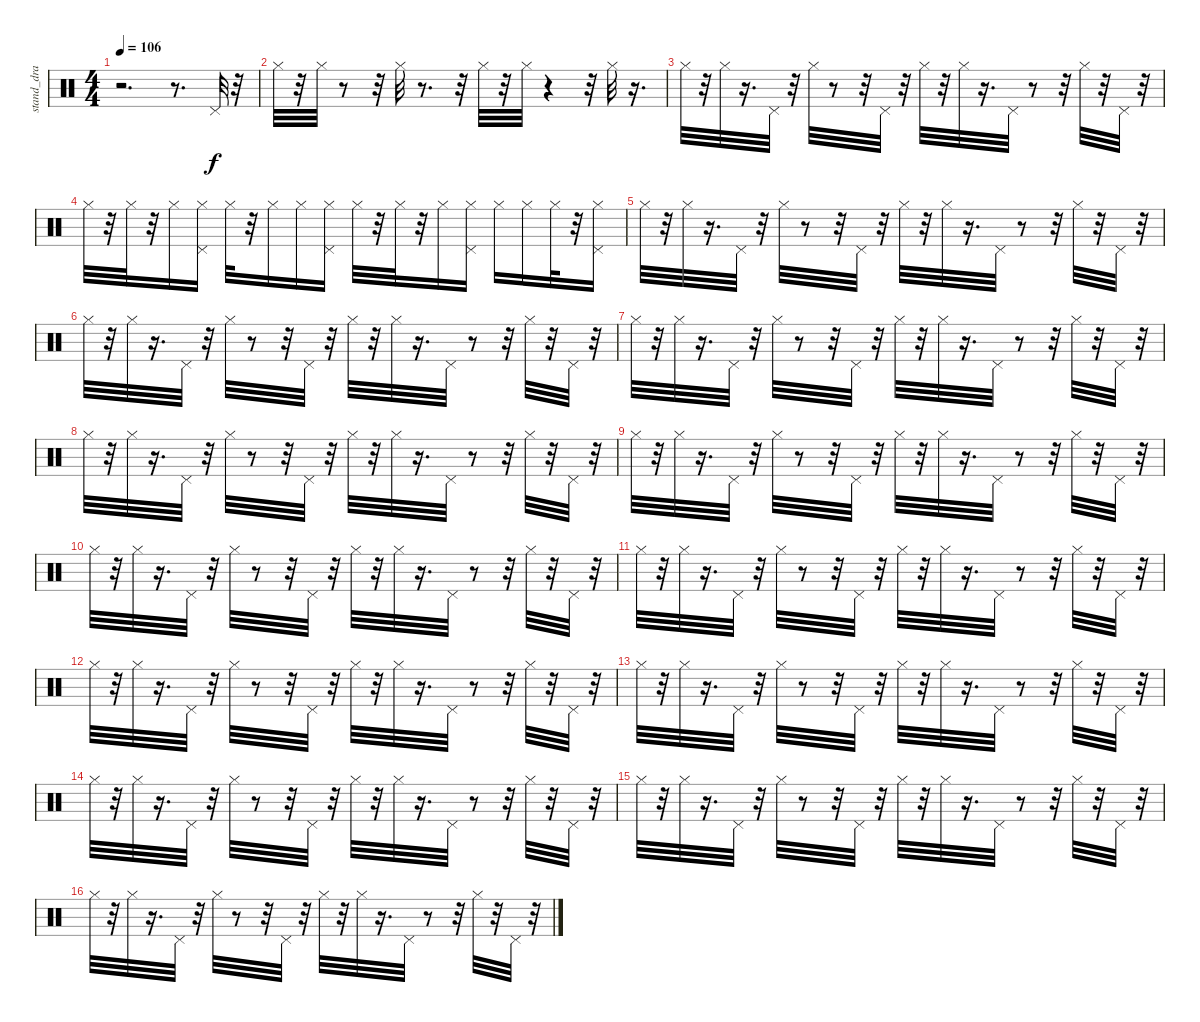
\track ("stand_dra" "stand_dra") {instrument percussion}
\staff {score}
\articulation defaults
\ts (4 4)
\tempo 106
\clef neutral
\ks c
r.2{d dy f} r.8{d} "Pedal Hi-Hat (hit)".32 r.32 |
"Hi-Hat (closed)".32 r.32 "Hi-Hat (closed)".32 r.8 r.32 "Hi-Hat (closed)".32 r.8{d} r.32 "Hi-Hat (closed)".32 r.32 "Hi-Hat (closed)".32 r.4 r.32 "Hi-Hat (closed)".32 r.16{d} |
"Hi-Hat (closed)".32 r.32 "Hi-Hat (closed)".32 r.16{d} "Pedal Hi-Hat (hit)".32 r.32 "Hi-Hat (closed)".32 r.8 r.32 "Pedal Hi-Hat (hit)".32 r.32 "Hi-Hat (closed)".32 r.32 "Hi-Hat (closed)".32 r.16{d} "Pedal Hi-Hat (hit)".32 r.8 r.32 "Hi-Hat (closed)".32 r.32 "Pedal Hi-Hat (hit)".32 r.32 |
"Hi-Hat (closed)".32 r.32 "Hi-Hat (closed)".32 r.32 "Hi-Hat (closed)".16 ("Hi-Hat (closed)" "Pedal Hi-Hat (hit)").16 "Hi-Hat (closed)".32 r.32 "Hi-Hat (closed)".16 "Hi-Hat (closed)".16 ("Hi-Hat (closed)" "Pedal Hi-Hat (hit)").16 "Hi-Hat (closed)".32 r.32 "Hi-Hat (closed)".32 r.32 "Hi-Hat (closed)".16 ("Hi-Hat (closed)" "Pedal Hi-Hat (hit)").16 "Hi-Hat (closed)".16 "Hi-Hat (closed)".16 "Hi-Hat (closed)".32 r.32 ("Hi-Hat (closed)" "Pedal Hi-Hat (hit)").16 |
"Hi-Hat (closed)".32 r.32 "Hi-Hat (closed)".32 r.16{d} "Pedal Hi-Hat (hit)".32 r.32 "Hi-Hat (closed)".32 r.8 r.32 "Pedal Hi-Hat (hit)".32 r.32 "Hi-Hat (closed)".32 r.32 "Hi-Hat (closed)".32 r.16{d} "Pedal Hi-Hat (hit)".32 r.8 r.32 "Hi-Hat (closed)".32 r.32 "Pedal Hi-Hat (hit)".32 r.32 |
"Hi-Hat (closed)".32 r.32 "Hi-Hat (closed)".32 r.16{d} "Pedal Hi-Hat (hit)".32 r.32 "Hi-Hat (closed)".32 r.8 r.32 "Pedal Hi-Hat (hit)".32 r.32 "Hi-Hat (closed)".32 r.32 "Hi-Hat (closed)".32 r.16{d} "Pedal Hi-Hat (hit)".32 r.8 r.32 "Hi-Hat (closed)".32 r.32 "Pedal Hi-Hat (hit)".32 r.32 |
"Hi-Hat (closed)".32 r.32 "Hi-Hat (closed)".32 r.16{d} "Pedal Hi-Hat (hit)".32 r.32 "Hi-Hat (closed)".32 r.8 r.32 "Pedal Hi-Hat (hit)".32 r.32 "Hi-Hat (closed)".32 r.32 "Hi-Hat (closed)".32 r.16{d} "Pedal Hi-Hat (hit)".32 r.8 r.32 "Hi-Hat (closed)".32 r.32 "Pedal Hi-Hat (hit)".32 r.32 |
"Hi-Hat (closed)".32 r.32 "Hi-Hat (closed)".32 r.16{d} "Pedal Hi-Hat (hit)".32 r.32 "Hi-Hat (closed)".32 r.8 r.32 "Pedal Hi-Hat (hit)".32 r.32 "Hi-Hat (closed)".32 r.32 "Hi-Hat (closed)".32 r.16{d} "Pedal Hi-Hat (hit)".32 r.8 r.32 "Hi-Hat (closed)".32 r.32 "Pedal Hi-Hat (hit)".32 r.32 |
"Hi-Hat (closed)".32 r.32 "Hi-Hat (closed)".32 r.16{d} "Pedal Hi-Hat (hit)".32 r.32 "Hi-Hat (closed)".32 r.8 r.32 "Pedal Hi-Hat (hit)".32 r.32 "Hi-Hat (closed)".32 r.32 "Hi-Hat (closed)".32 r.16{d} "Pedal Hi-Hat (hit)".32 r.8 r.32 "Hi-Hat (closed)".32 r.32 "Pedal Hi-Hat (hit)".32 r.32 |
"Hi-Hat (closed)".32 r.32 "Hi-Hat (closed)".32 r.16{d} "Pedal Hi-Hat (hit)".32 r.32 "Hi-Hat (closed)".32 r.8 r.32 "Pedal Hi-Hat (hit)".32 r.32 "Hi-Hat (closed)".32 r.32 "Hi-Hat (closed)".32 r.16{d} "Pedal Hi-Hat (hit)".32 r.8 r.32 "Hi-Hat (closed)".32 r.32 "Pedal Hi-Hat (hit)".32 r.32 |
"Hi-Hat (closed)".32 r.32 "Hi-Hat (closed)".32 r.16{d} "Pedal Hi-Hat (hit)".32 r.32 "Hi-Hat (closed)".32 r.8 r.32 "Pedal Hi-Hat (hit)".32 r.32 "Hi-Hat (closed)".32 r.32 "Hi-Hat (closed)".32 r.16{d} "Pedal Hi-Hat (hit)".32 r.8 r.32 "Hi-Hat (closed)".32 r.32 "Pedal Hi-Hat (hit)".32 r.32 |
"Hi-Hat (closed)".32 r.32 "Hi-Hat (closed)".32 r.16{d} "Pedal Hi-Hat (hit)".32 r.32 "Hi-Hat (closed)".32 r.8 r.32 "Pedal Hi-Hat (hit)".32 r.32 "Hi-Hat (closed)".32 r.32 "Hi-Hat (closed)".32 r.16{d} "Pedal Hi-Hat (hit)".32 r.8 r.32 "Hi-Hat (closed)".32 r.32 "Pedal Hi-Hat (hit)".32 r.32 |
"Hi-Hat (closed)".32 r.32 "Hi-Hat (closed)".32 r.16{d} "Pedal Hi-Hat (hit)".32 r.32 "Hi-Hat (closed)".32 r.8 r.32 "Pedal Hi-Hat (hit)".32 r.32 "Hi-Hat (closed)".32 r.32 "Hi-Hat (closed)".32 r.16{d} "Pedal Hi-Hat (hit)".32 r.8 r.32 "Hi-Hat (closed)".32 r.32 "Pedal Hi-Hat (hit)".32 r.32 |
"Hi-Hat (closed)".32 r.32 "Hi-Hat (closed)".32 r.16{d} "Pedal Hi-Hat (hit)".32 r.32 "Hi-Hat (closed)".32 r.8 r.32 "Pedal Hi-Hat (hit)".32 r.32 "Hi-Hat (closed)".32 r.32 "Hi-Hat (closed)".32 r.16{d} "Pedal Hi-Hat (hit)".32 r.8 r.32 "Hi-Hat (closed)".32 r.32 "Pedal Hi-Hat (hit)".32 r.32 |
"Hi-Hat (closed)".32 r.32 "Hi-Hat (closed)".32 r.16{d} "Pedal Hi-Hat (hit)".32 r.32 "Hi-Hat (closed)".32 r.8 r.32 "Pedal Hi-Hat (hit)".32 r.32 "Hi-Hat (closed)".32 r.32 "Hi-Hat (closed)".32 r.16{d} "Pedal Hi-Hat (hit)".32 r.8 r.32 "Hi-Hat (closed)".32 r.32 "Pedal Hi-Hat (hit)".32 r.32 |
"Hi-Hat (closed)".32 r.32 "Hi-Hat (closed)".32 r.16{d} "Pedal Hi-Hat (hit)".32 r.32 "Hi-Hat (closed)".32 r.8 r.32 "Pedal Hi-Hat (hit)".32 r.32 "Hi-Hat (closed)".32 r.32 "Hi-Hat (closed)".32 r.16{d} "Pedal Hi-Hat (hit)".32 r.8 r.32 "Hi-Hat (closed)".32 r.32 "Pedal Hi-Hat (hit)".32 r.32
